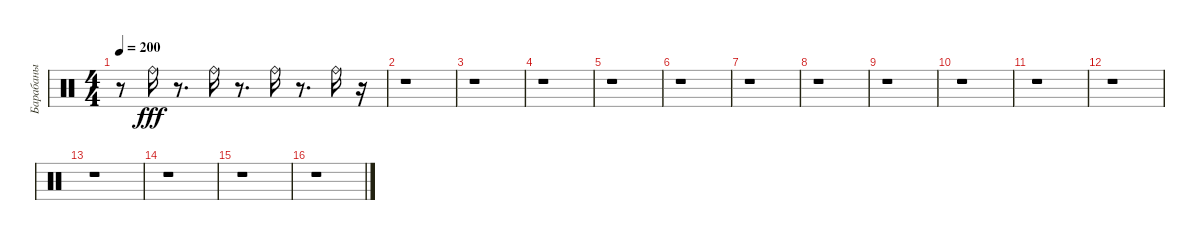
\track ("Барабаны" "Барабаны") {instrument percussion}
\staff {score}
\articulation defaults
\ts (4 4)
\tempo 200
\clef neutral
\ks c
r.8{dy fff} "Ride (bell)".16 r.8{d} "Ride (bell)".16 r.8{d} "Ride (bell)".16 r.8{d} "Ride (bell)".16 r.16 |
r.1 |
r.1 |
r.1 |
r.1 |
r.1 |
r.1 |
r.1 |
r.1 |
r.1 |
r.1 |
r.1 |
r.1 |
r.1 |
r.1 |
r.1
